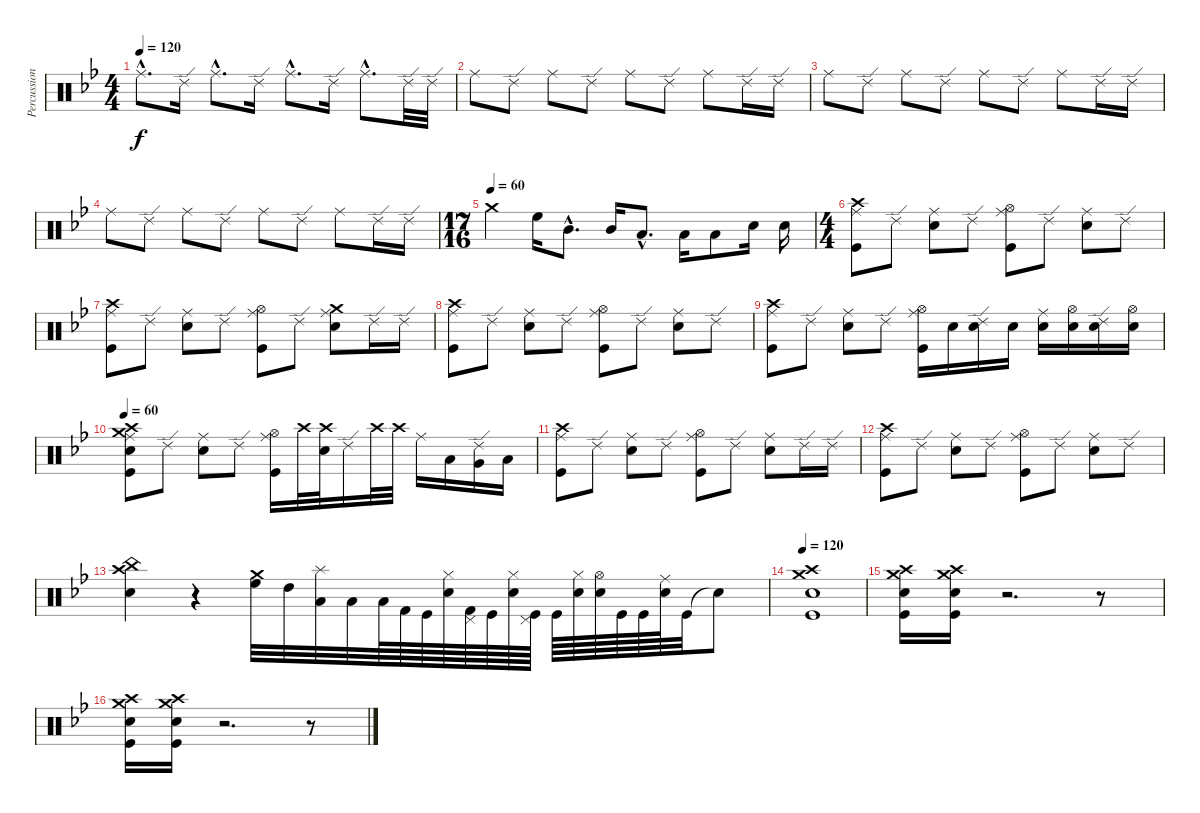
\track ("Percussions" "Percussion") {instrument percussion}
\staff {score}
\articulation defaults
\ts (4 4)
\tempo 120
\clef neutral
\ks gminor "Ride (middle)"{hac}.8{d dy f} "Ride (edge) 2".16 "Ride (middle)"{hac}.8{d} "Ride (edge) 2".16 "Ride (middle)"{hac}.8{d} "Ride (edge) 2".16 "Ride (middle)"{hac}.8{d} "Ride (edge) 2".32 "Ride (edge) 2".32
|
"Ride (middle)".8 "Ride (edge) 2".8 "Ride (middle)".8 "Ride (edge) 2".8 "Ride (middle)".8 "Ride (edge) 2".8 "Ride (middle)".8 "Ride (edge) 2".16 "Ride (edge) 2".16 |
"Ride (middle)".8 "Ride (edge) 2".8 "Ride (middle)".8 "Ride (edge) 2".8 "Ride (middle)".8 "Ride (edge) 2".8 "Ride (middle)".8 "Ride (edge) 2".16 "Ride (edge) 2".16 |
"Ride (middle)".8 "Ride (edge) 2".8 "Ride (middle)".8 "Ride (edge) 2".8 "Ride (middle)".8 "Ride (edge) 2".8 "Ride (middle)".8 "Ride (edge) 2".16 "Ride (edge) 2".16 |
\ts (17 16)
\tempo (60)
"Crash medium (hit)".4 "High Floor Tom (hit)".16 "Mid Tom (hit)"{hac}.8{d} "Mid Tom (hit)".16 "Low Tom (hit)"{hac}.8{d} "Low Tom (hit)".16 "Low Floor Tom (hit)".8 "Snare (hit) 2".16 "Electric Snare (hit)".16 |
\ts (4 4)
("Ride (middle)" "Crash high (hit)" "Kick (hit)").8 "Ride (edge) 2".8 ("Ride (middle)" "Electric Snare (hit)").8 "Ride (edge) 2".8 ("Ride (middle)" "Hi-Hat (open)" "Kick (hit)").8 "Ride (edge) 2".8 ("Ride (middle)" "Electric Snare (hit)").8 "Ride (edge) 2".8 |
("Ride (middle)" "Crash high (hit)" "Kick (hit)").8 "Ride (edge) 2".8 ("Ride (middle)" "Electric Snare (hit)").8 "Ride (edge) 2".8 ("Ride (middle)" "Hi-Hat (open)" "Kick (hit)").8 "Ride (edge) 2".8 ("Ride (middle)" "Electric Snare (hit)" "Crash medium (hit)").8 "Ride (edge) 2".16 "Ride (edge) 2".16 |
("Ride (middle)" "Crash high (hit)" "Kick (hit)").8 "Ride (edge) 2".8 ("Ride (middle)" "Electric Snare (hit)").8 "Ride (edge) 2".8 ("Ride (middle)" "Hi-Hat (open)" "Kick (hit)").8 "Ride (edge) 2".8 ("Ride (middle)" "Electric Snare (hit)").8 "Ride (edge) 2".8 |
("Ride (middle)" "Crash high (hit)" "Kick (hit)").8 "Ride (edge) 2".8 ("Ride (middle)" "Electric Snare (hit)").8 "Ride (edge) 2".8 ("Ride (middle)" "Hi-Hat (open)" "Kick (hit)").16 "Snare (hit) 2".16 ("Ride (edge) 2" "Electric Snare (hit)").16 "Snare (hit) 2".16 ("Ride (middle)" "Electric Snare (hit)").16 ("Hi-Hat (open)" "Snare (hit) 2").16 ("Ride (edge) 2" "Electric Snare (hit)").16 ("Hi-Hat (open)" "Snare (hit) 2").16 |
\tempo 60
("Ride (middle)" "Crash medium (hit)" "Electric Snare (hit)" "Crash high (hit)" "Kick (hit)").8 "Ride (edge) 2".8 ("Ride (middle)" "Electric Snare (hit)").8 "Ride (edge) 2".8 ("Ride (middle)" "Hi-Hat (open)" "Kick (hit)").16 "Crash high (hit)".32 ("Crash high (hit)" "Electric Snare (hit)").32 "Ride (edge) 2".16 "Crash high (hit)".32 "Crash high (hit)".32 "Ride (middle)".16 "Low Floor Tom (hit)".16 ("Ride (edge) 2" "Very Low Tom (hit)").16 "Low Tom (hit)".16 |
("Ride (middle)" "Crash high (hit)" "Kick (hit)").8 "Ride (edge) 2".8 ("Ride (middle)" "Electric Snare (hit)").8 "Ride (edge) 2".8 ("Ride (middle)" "Hi-Hat (open)" "Kick (hit)").8 "Ride (edge) 2".8 ("Ride (middle)" "Electric Snare (hit)").8 "Ride (edge) 2".16 "Ride (edge) 2".16 |
("Ride (middle)" "Crash high (hit)" "Kick (hit)").8 "Ride (edge) 2".8 ("Ride (middle)" "Electric Snare (hit)").8 "Ride (edge) 2".8 ("Ride (middle)" "Hi-Hat (open)" "Kick (hit)").8 "Ride (edge) 2".8 ("Ride (middle)" "Electric Snare (hit)").8 "Ride (edge) 2".8 |
("Crash high (hit)" "China (hit)" "Snare (hit) 2").4 r.4 ("High Floor Tom (hit)" "Crash medium (hit)").32 "High Tom (hit)".32 ("Low Tom (hit)" "Splash (hit)").32 "Low Floor Tom (hit)".32 "Low Tom (hit)".64 "Kick (hit) 2".64 "Kick (hit)".64 ("Snare (hit) 2" "Hi-Hat (closed)").64 ("Kick (hit) 2" "Pedal Hi-Hat (hit)").64 "Kick (hit)".64 ("Snare (hit) 2" "Hi-Hat (closed)").64 ("Kick (hit)" "Pedal Hi-Hat (hit)").64 "Kick (hit)".64 ("Snare (hit) 2" "Hi-Hat (closed)").64 ("Snare (hit) 2" "Hi-Hat (open)").64 "Kick (hit)".64 "Kick (hit)".64 ("Snare (hit) 2" "Ride (middle)").64 "Kick (hit)".32 "Snare (hit)"{t}.8 |
\tempo 120
("Crash high (hit)" "Crash medium (hit)" "Snare (hit) 2" "Kick (hit)").1 |
("Kick (hit)" "Crash high (hit)" "Crash medium (hit)" "Electric Snare (hit)").16 ("Kick (hit)" "Crash high (hit)" "Crash medium (hit)" "Electric Snare (hit)").16 r.2{d} r.8 |
("Kick (hit)" "Crash high (hit)" "Crash medium (hit)" "Electric Snare (hit)").16 ("Kick (hit)" "Crash high (hit)" "Crash medium (hit)" "Electric Snare (hit)").16 r.2{d} r.8
